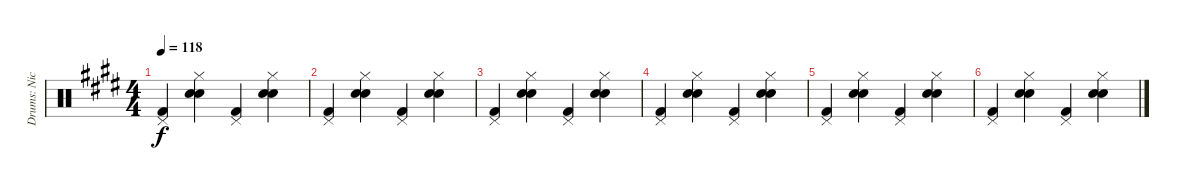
\track ("Drums: Nick" "Drums: Nic") {instrument percussion}
\staff {score}
\articulation defaults
\ts (4 4)
\tempo 118
\clef neutral
\ks e
("Pedal Hi-Hat (hit)" "Kick (hit) 2").4{dy f} ("Hi-Hat (closed)" "Electric Snare (hit)" "Hand Clap (hit)").4 ("Pedal Hi-Hat (hit)" "Kick (hit) 2").4 ("Hi-Hat (closed)" "Electric Snare (hit)" "Hand Clap (hit)").4 |
("Pedal Hi-Hat (hit)" "Kick (hit) 2").4 ("Hi-Hat (closed)" "Electric Snare (hit)" "Hand Clap (hit)").4 ("Pedal Hi-Hat (hit)" "Kick (hit) 2").4 ("Hi-Hat (closed)" "Electric Snare (hit)" "Hand Clap (hit)").4 |
("Pedal Hi-Hat (hit)" "Kick (hit) 2").4 ("Hi-Hat (closed)" "Electric Snare (hit)" "Hand Clap (hit)").4 ("Pedal Hi-Hat (hit)" "Kick (hit) 2").4 ("Hi-Hat (closed)" "Electric Snare (hit)" "Hand Clap (hit)").4 |
("Pedal Hi-Hat (hit)" "Kick (hit) 2").4 ("Hi-Hat (closed)" "Electric Snare (hit)" "Hand Clap (hit)").4 ("Pedal Hi-Hat (hit)" "Kick (hit) 2").4 ("Hi-Hat (closed)" "Electric Snare (hit)" "Hand Clap (hit)").4 |
("Pedal Hi-Hat (hit)" "Kick (hit) 2").4 ("Hi-Hat (closed)" "Electric Snare (hit)" "Hand Clap (hit)").4 ("Pedal Hi-Hat (hit)" "Kick (hit) 2").4 ("Hi-Hat (closed)" "Electric Snare (hit)" "Hand Clap (hit)").4 |
("Pedal Hi-Hat (hit)" "Kick (hit) 2").4 ("Hi-Hat (closed)" "Electric Snare (hit)" "Hand Clap (hit)").4 ("Pedal Hi-Hat (hit)" "Kick (hit) 2").4 ("Hi-Hat (closed)" "Electric Snare (hit)" "Hand Clap (hit)").4
